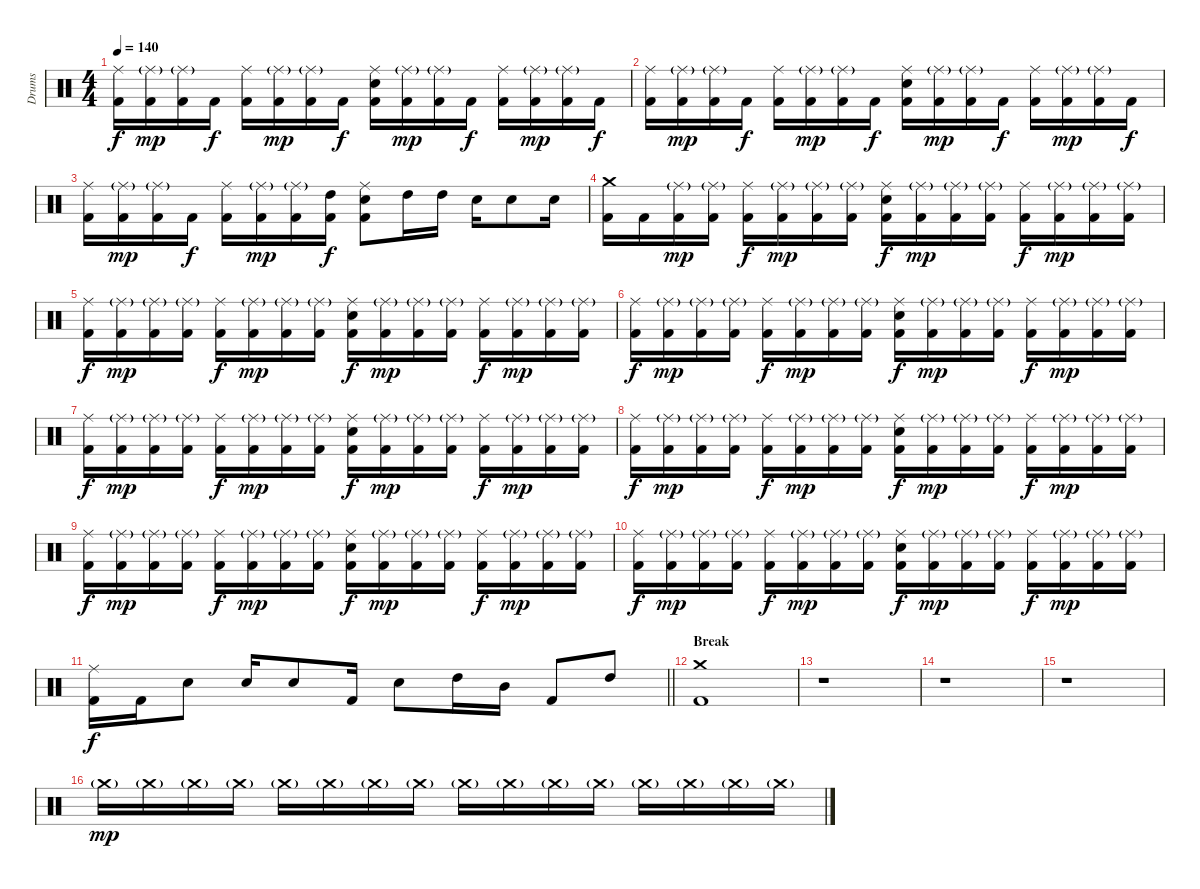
\track ("Drums" "Drums") {instrument percussion}
\staff {score}
\articulation defaults
\ts (4 4)
\tempo 140
\clef neutral
\ks c
("Ride (middle)" "Kick (hit) 2").16{dy f} ("Ride (middle)"{g} "Kick (hit) 2").16{dy mp} ("Ride (middle)"{g} "Kick (hit) 2").16 "Kick (hit) 2".16{dy f} ("Ride (middle)" "Kick (hit) 2").16 ("Ride (middle)"{g} "Kick (hit) 2").16{dy mp} ("Ride (middle)"{g} "Kick (hit) 2").16 "Kick (hit) 2".16{dy f} ("Ride (middle)" "Electric Snare (hit)" "Kick (hit) 2").16 ("Ride (middle)"{g} "Kick (hit) 2").16{dy mp} ("Ride (middle)"{g} "Kick (hit) 2").16 "Kick (hit) 2".16{dy f} ("Ride (middle)" "Kick (hit) 2").16 ("Ride (middle)"{g} "Kick (hit) 2").16{dy mp} ("Ride (middle)"{g} "Kick (hit) 2").16 "Kick (hit) 2".16{dy f} |
("Ride (middle)" "Kick (hit) 2").16 ("Ride (middle)"{g} "Kick (hit) 2").16{dy mp} ("Ride (middle)"{g} "Kick (hit) 2").16 "Kick (hit) 2".16{dy f} ("Ride (middle)" "Kick (hit) 2").16 ("Ride (middle)"{g} "Kick (hit) 2").16{dy mp} ("Ride (middle)"{g} "Kick (hit) 2").16 "Kick (hit) 2".16{dy f} ("Ride (middle)" "Electric Snare (hit)" "Kick (hit) 2").16 ("Ride (middle)"{g} "Kick (hit) 2").16{dy mp} ("Ride (middle)"{g} "Kick (hit) 2").16 "Kick (hit) 2".16{dy f} ("Ride (middle)" "Kick (hit) 2").16 ("Ride (middle)"{g} "Kick (hit) 2").16{dy mp} ("Ride (middle)"{g} "Kick (hit) 2").16 "Kick (hit) 2".16{dy f} |
("Ride (middle)" "Kick (hit) 2").16 ("Ride (middle)"{g} "Kick (hit) 2").16{dy mp} ("Ride (middle)"{g} "Kick (hit) 2").16 "Kick (hit) 2".16{dy f} ("Ride (middle)" "Kick (hit) 2").16 ("Ride (middle)"{g} "Kick (hit) 2").16{dy mp} ("Ride (middle)"{g} "Kick (hit) 2").16 ("High Tom (hit)" "Kick (hit) 2").16{dy f} ("Ride (middle)" "Electric Snare (hit)" "Kick (hit) 2").8 "High Tom (hit)".16 "High Tom (hit)".16 "Electric Snare (hit)".16 "Electric Snare (hit)".8 "Electric Snare (hit)".16 |
("Crash medium (hit)" "Kick (hit) 2").16 "Kick (hit) 2".16 ("Ride (middle)"{g} "Kick (hit) 2").16{dy mp} ("Ride (middle)"{g} "Kick (hit) 2").16 ("Ride (middle)" "Kick (hit) 2").16{dy f} ("Ride (middle)"{g} "Kick (hit) 2").16{dy mp} ("Ride (middle)"{g} "Kick (hit) 2").16 ("Ride (middle)"{g} "Kick (hit) 2").16 ("Ride (middle)" "Electric Snare (hit)" "Kick (hit) 2").16{dy f} ("Ride (middle)"{g} "Kick (hit) 2").16{dy mp} ("Ride (middle)"{g} "Kick (hit) 2").16 ("Ride (middle)"{g} "Kick (hit) 2").16 ("Ride (middle)" "Kick (hit) 2").16{dy f} ("Ride (middle)"{g} "Kick (hit) 2").16{dy mp} ("Ride (middle)"{g} "Kick (hit) 2").16 ("Ride (middle)"{g} "Kick (hit) 2").16 |
("Ride (middle)" "Kick (hit) 2").16{dy f} ("Ride (middle)"{g} "Kick (hit) 2").16{dy mp} ("Ride (middle)"{g} "Kick (hit) 2").16 ("Ride (middle)"{g} "Kick (hit) 2").16 ("Ride (middle)" "Kick (hit) 2").16{dy f} ("Ride (middle)"{g} "Kick (hit) 2").16{dy mp} ("Ride (middle)"{g} "Kick (hit) 2").16 ("Ride (middle)"{g} "Kick (hit) 2").16 ("Ride (middle)" "Electric Snare (hit)" "Kick (hit) 2").16{dy f} ("Ride (middle)"{g} "Kick (hit) 2").16{dy mp} ("Ride (middle)"{g} "Kick (hit) 2").16 ("Ride (middle)"{g} "Kick (hit) 2").16 ("Ride (middle)" "Kick (hit) 2").16{dy f} ("Ride (middle)"{g} "Kick (hit) 2").16{dy mp} ("Ride (middle)"{g} "Kick (hit) 2").16 ("Ride (middle)"{g} "Kick (hit) 2").16 |
("Ride (middle)" "Kick (hit) 2").16{dy f} ("Ride (middle)"{g} "Kick (hit) 2").16{dy mp} ("Ride (middle)"{g} "Kick (hit) 2").16 ("Ride (middle)"{g} "Kick (hit) 2").16 ("Ride (middle)" "Kick (hit) 2").16{dy f} ("Ride (middle)"{g} "Kick (hit) 2").16{dy mp} ("Ride (middle)"{g} "Kick (hit) 2").16 ("Ride (middle)"{g} "Kick (hit) 2").16 ("Ride (middle)" "Electric Snare (hit)" "Kick (hit) 2").16{dy f} ("Ride (middle)"{g} "Kick (hit) 2").16{dy mp} ("Ride (middle)"{g} "Kick (hit) 2").16 ("Ride (middle)"{g} "Kick (hit) 2").16 ("Ride (middle)" "Kick (hit) 2").16{dy f} ("Ride (middle)"{g} "Kick (hit) 2").16{dy mp} ("Ride (middle)"{g} "Kick (hit) 2").16 ("Ride (middle)"{g} "Kick (hit) 2").16 |
("Ride (middle)" "Kick (hit) 2").16{dy f} ("Ride (middle)"{g} "Kick (hit) 2").16{dy mp} ("Ride (middle)"{g} "Kick (hit) 2").16 ("Ride (middle)"{g} "Kick (hit) 2").16 ("Ride (middle)" "Kick (hit) 2").16{dy f} ("Ride (middle)"{g} "Kick (hit) 2").16{dy mp} ("Ride (middle)"{g} "Kick (hit) 2").16 ("Ride (middle)"{g} "Kick (hit) 2").16 ("Ride (middle)" "Electric Snare (hit)" "Kick (hit) 2").16{dy f} ("Ride (middle)"{g} "Kick (hit) 2").16{dy mp} ("Ride (middle)"{g} "Kick (hit) 2").16 ("Ride (middle)"{g} "Kick (hit) 2").16 ("Ride (middle)" "Kick (hit) 2").16{dy f} ("Ride (middle)"{g} "Kick (hit) 2").16{dy mp} ("Ride (middle)"{g} "Kick (hit) 2").16 ("Ride (middle)"{g} "Kick (hit) 2").16 |
("Ride (middle)" "Kick (hit) 2").16{dy f} ("Ride (middle)"{g} "Kick (hit) 2").16{dy mp} ("Ride (middle)"{g} "Kick (hit) 2").16 ("Ride (middle)"{g} "Kick (hit) 2").16 ("Ride (middle)" "Kick (hit) 2").16{dy f} ("Ride (middle)"{g} "Kick (hit) 2").16{dy mp} ("Ride (middle)"{g} "Kick (hit) 2").16 ("Ride (middle)"{g} "Kick (hit) 2").16 ("Ride (middle)" "Electric Snare (hit)" "Kick (hit) 2").16{dy f} ("Ride (middle)"{g} "Kick (hit) 2").16{dy mp} ("Ride (middle)"{g} "Kick (hit) 2").16 ("Ride (middle)"{g} "Kick (hit) 2").16 ("Ride (middle)" "Kick (hit) 2").16{dy f} ("Ride (middle)"{g} "Kick (hit) 2").16{dy mp} ("Ride (middle)"{g} "Kick (hit) 2").16 ("Ride (middle)"{g} "Kick (hit) 2").16 |
("Ride (middle)" "Kick (hit) 2").16{dy f} ("Ride (middle)"{g} "Kick (hit) 2").16{dy mp} ("Ride (middle)"{g} "Kick (hit) 2").16 ("Ride (middle)"{g} "Kick (hit) 2").16 ("Ride (middle)" "Kick (hit) 2").16{dy f} ("Ride (middle)"{g} "Kick (hit) 2").16{dy mp} ("Ride (middle)"{g} "Kick (hit) 2").16 ("Ride (middle)"{g} "Kick (hit) 2").16 ("Ride (middle)" "Electric Snare (hit)" "Kick (hit) 2").16{dy f} ("Ride (middle)"{g} "Kick (hit) 2").16{dy mp} ("Ride (middle)"{g} "Kick (hit) 2").16 ("Ride (middle)"{g} "Kick (hit) 2").16 ("Ride (middle)" "Kick (hit) 2").16{dy f} ("Ride (middle)"{g} "Kick (hit) 2").16{dy mp} ("Ride (middle)"{g} "Kick (hit) 2").16 ("Ride (middle)"{g} "Kick (hit) 2").16 |
("Ride (middle)" "Kick (hit) 2").16{dy f} ("Ride (middle)"{g} "Kick (hit) 2").16{dy mp} ("Ride (middle)"{g} "Kick (hit) 2").16 ("Ride (middle)"{g} "Kick (hit) 2").16 ("Ride (middle)" "Kick (hit) 2").16{dy f} ("Ride (middle)"{g} "Kick (hit) 2").16{dy mp} ("Ride (middle)"{g} "Kick (hit) 2").16 ("Ride (middle)"{g} "Kick (hit) 2").16 ("Ride (middle)" "Electric Snare (hit)" "Kick (hit) 2").16{dy f} ("Ride (middle)"{g} "Kick (hit) 2").16{dy mp} ("Ride (middle)"{g} "Kick (hit) 2").16 ("Ride (middle)"{g} "Kick (hit) 2").16 ("Ride (middle)" "Kick (hit) 2").16{dy f} ("Ride (middle)"{g} "Kick (hit) 2").16{dy mp} ("Ride (middle)"{g} "Kick (hit) 2").16 ("Ride (middle)"{g} "Kick (hit) 2").16 |
\barLineRight lightlight
("Ride (middle)" "Kick (hit) 2").16{dy f} "Kick (hit) 2".16 "Electric Snare (hit)".8 "Electric Snare (hit)".16 "Electric Snare (hit)".8 "Kick (hit) 2".16 "Electric Snare (hit)".8 "High Tom (hit)".16 "Mid Tom (hit)".16 "Kick (hit) 2".8 "High Tom (hit)".8 |
\section ("" "Break")
("Crash medium (hit)" "Kick (hit) 2").1 |
r.1 |
r.1 |
r.1 |
"Crash medium (hit)"{g}.16{dy mp volume 2} "Crash medium (hit)"{g}.16 "Crash medium (hit)"{g}.16 "Crash medium (hit)"{g}.16 "Crash medium (hit)"{g}.16 "Crash medium (hit)"{g}.16 "Crash medium (hit)"{g}.16 "Crash medium (hit)"{g}.16 "Crash medium (hit)"{g}.16 "Crash medium (hit)"{g}.16 "Crash medium (hit)"{g}.16 "Crash medium (hit)"{g}.16 "Crash medium (hit)"{g}.16 "Crash medium (hit)"{g}.16 "Crash medium (hit)"{g}.16 "Crash medium (hit)"{g}.16
